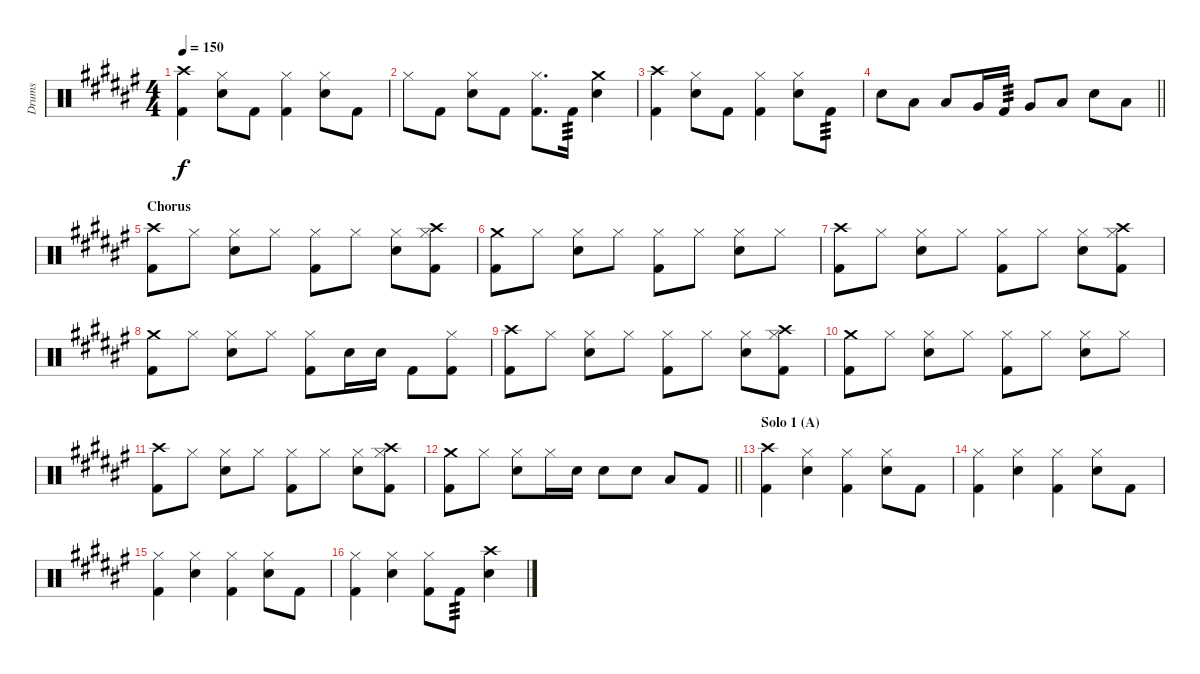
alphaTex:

\track ("Drums" "Drums") {instrument percussion}
\staff {score}
\articulation defaults
\ts (4 4)
\tempo 150
\clef neutral
\ks f#
("Crash high (hit)" "Kick (hit) 2").4{dy f} ("Electric Snare (hit)" "Hi-Hat (closed)").8 "Kick (hit) 2".8 ("Hi-Hat (closed)" "Kick (hit) 2").4 ("Electric Snare (hit)" "Hi-Hat (closed)").8 "Kick (hit) 2".8 |
"Hi-Hat (closed)".8 "Kick (hit) 2".8 ("Electric Snare (hit)" "Hi-Hat (closed)").8 "Kick (hit) 2".8 ("Hi-Hat (closed)" "Kick (hit) 2").8{d} "Kick (hit) 2".16{tp 3} ("Crash medium (hit)" "Electric Snare (hit)").4 |
("Crash high (hit)" "Kick (hit) 2").4 ("Electric Snare (hit)" "Hi-Hat (closed)").8 "Kick (hit) 2".8 ("Hi-Hat (closed)" "Kick (hit) 2").4 ("Electric Snare (hit)" "Hi-Hat (closed)").8 "Kick (hit) 2".8{tp 3} |
\barLineRight lightlight "Electric Snare (hit)".8 "Low Tom (hit)".8 "Low Tom (hit)".8 "Very Low Tom (hit)".16 "Kick (hit) 2".16{tp 3} "Very Low Tom (hit)".8 "Low Floor Tom (hit)".8 "Electric Snare (hit)".8 "Low Floor Tom (hit)".8
|
\section ("" "Chorus")
("Crash high (hit)" "Kick (hit) 2").8 "Hi-Hat (closed)".8 ("Electric Snare (hit)" "Hi-Hat (closed)").8 "Hi-Hat (closed)".8 ("Hi-Hat (closed)" "Kick (hit) 2").8 "Hi-Hat (closed)".8 ("Electric Snare (hit)" "Hi-Hat (closed)").8 ("Crash high (hit)" "Hi-Hat (closed)" "Kick (hit) 2").8 |
("Crash medium (hit)" "Kick (hit) 2").8 "Hi-Hat (closed)".8 ("Electric Snare (hit)" "Hi-Hat (closed)").8 "Hi-Hat (closed)".8 ("Hi-Hat (closed)" "Kick (hit) 2").8 "Hi-Hat (closed)".8 ("Electric Snare (hit)" "Hi-Hat (closed)").8 "Hi-Hat (closed)".8 |
("Crash high (hit)" "Kick (hit) 2").8 "Hi-Hat (closed)".8 ("Electric Snare (hit)" "Hi-Hat (closed)").8 "Hi-Hat (closed)".8 ("Hi-Hat (closed)" "Kick (hit) 2").8 "Hi-Hat (closed)".8 ("Electric Snare (hit)" "Hi-Hat (closed)").8 ("Crash high (hit)" "Hi-Hat (closed)" "Kick (hit) 2").8 |
("Crash medium (hit)" "Kick (hit) 2").8 "Hi-Hat (closed)".8 ("Electric Snare (hit)" "Hi-Hat (closed)").8 "Hi-Hat (closed)".8 ("Hi-Hat (closed)" "Kick (hit) 2").8 "Electric Snare (hit)".16 "Electric Snare (hit)".16 "Kick (hit) 2".8 ("Hi-Hat (closed)" "Kick (hit) 2").8 |
("Crash high (hit)" "Kick (hit) 2").8 "Hi-Hat (closed)".8 ("Electric Snare (hit)" "Hi-Hat (closed)").8 "Hi-Hat (closed)".8 ("Hi-Hat (closed)" "Kick (hit) 2").8 "Hi-Hat (closed)".8 ("Electric Snare (hit)" "Hi-Hat (closed)").8 ("Crash high (hit)" "Hi-Hat (closed)" "Kick (hit) 2").8 |
("Crash medium (hit)" "Kick (hit) 2").8 "Hi-Hat (closed)".8 ("Electric Snare (hit)" "Hi-Hat (closed)").8 "Hi-Hat (closed)".8 ("Hi-Hat (closed)" "Kick (hit) 2").8 "Hi-Hat (closed)".8 ("Electric Snare (hit)" "Hi-Hat (closed)").8 "Hi-Hat (closed)".8 |
("Crash high (hit)" "Kick (hit) 2").8 "Hi-Hat (closed)".8 ("Electric Snare (hit)" "Hi-Hat (closed)").8 "Hi-Hat (closed)".8 ("Hi-Hat (closed)" "Kick (hit) 2").8 "Hi-Hat (closed)".8 ("Electric Snare (hit)" "Hi-Hat (closed)").8 ("Crash high (hit)" "Hi-Hat (closed)" "Kick (hit) 2").8 |
\barLineRight lightlight
("Crash medium (hit)" "Kick (hit) 2").8 "Hi-Hat (closed)".8 ("Electric Snare (hit)" "Hi-Hat (closed)").8 "Hi-Hat (closed)".16 "Electric Snare (hit)".16 "Electric Snare (hit)".8 "Electric Snare (hit)".8 "Low Floor Tom (hit)".8 "Kick (hit) 2".8 |
\section ("" "Solo 1 (A)")
("Crash high (hit)" "Kick (hit) 2").4 ("Electric Snare (hit)" "Hi-Hat (closed)").4 ("Hi-Hat (closed)" "Kick (hit) 2").4 ("Electric Snare (hit)" "Hi-Hat (closed)").8 "Kick (hit) 2".8 |
("Hi-Hat (closed)" "Kick (hit) 2").4 ("Electric Snare (hit)" "Hi-Hat (closed)").4 ("Hi-Hat (closed)" "Kick (hit) 2").4 ("Electric Snare (hit)" "Hi-Hat (closed)").8 "Kick (hit) 2".8 |
("Hi-Hat (closed)" "Kick (hit) 2").4 ("Electric Snare (hit)" "Hi-Hat (closed)").4 ("Hi-Hat (closed)" "Kick (hit) 2").4 ("Electric Snare (hit)" "Hi-Hat (closed)").8 "Kick (hit) 2".8 |
("Hi-Hat (closed)" "Kick (hit) 2").4 ("Electric Snare (hit)" "Hi-Hat (closed)").4 ("Hi-Hat (closed)" "Kick (hit) 2").8 "Kick (hit) 2".8{tp 3} ("Crash high (hit)" "Electric Snare (hit)").4
